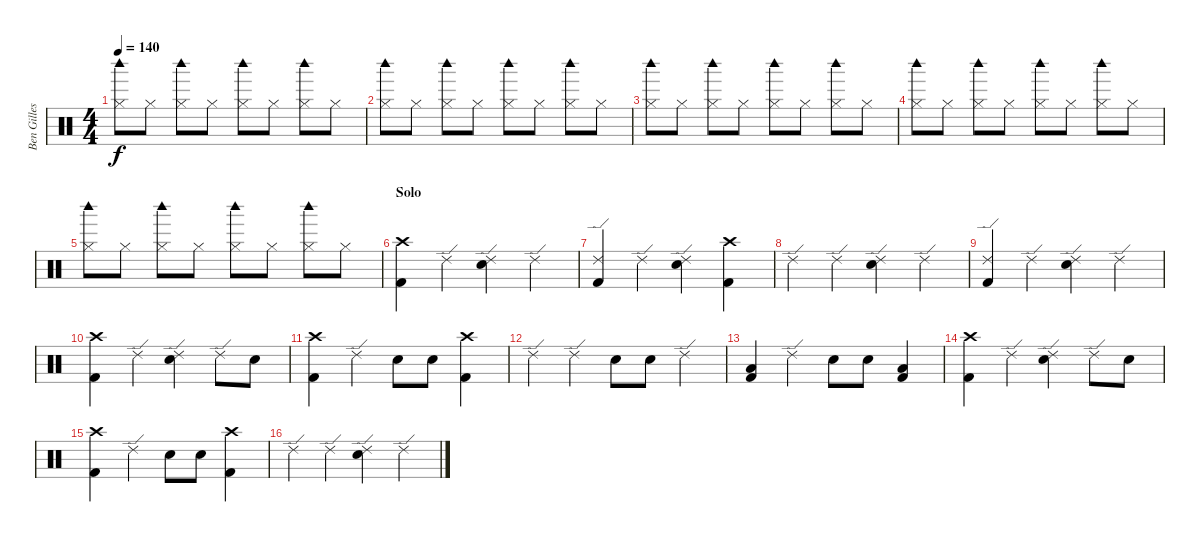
\track ("Ben Gilles" "Ben Gilles") {instrument percussion}
\staff {score}
\articulation defaults
\ts (4 4)
\tempo 140
\clef neutral
\ks c
("Hi-Hat (closed)" "Woodblock high (hit)").8{dy f} "Hi-Hat (closed)".8 ("Hi-Hat (closed)" "Woodblock high (hit)").8 "Hi-Hat (closed)".8 ("Hi-Hat (closed)" "Woodblock high (hit)").8 "Hi-Hat (closed)".8 ("Hi-Hat (closed)" "Woodblock high (hit)").8 "Hi-Hat (closed)".8 |
("Hi-Hat (closed)" "Woodblock high (hit)").8 "Hi-Hat (closed)".8 ("Hi-Hat (closed)" "Woodblock high (hit)").8 "Hi-Hat (closed)".8 ("Hi-Hat (closed)" "Woodblock high (hit)").8 "Hi-Hat (closed)".8 ("Hi-Hat (closed)" "Woodblock high (hit)").8 "Hi-Hat (closed)".8 |
("Hi-Hat (closed)" "Woodblock high (hit)").8 "Hi-Hat (closed)".8 ("Hi-Hat (closed)" "Woodblock high (hit)").8 "Hi-Hat (closed)".8 ("Hi-Hat (closed)" "Woodblock high (hit)").8 "Hi-Hat (closed)".8 ("Hi-Hat (closed)" "Woodblock high (hit)").8 "Hi-Hat (closed)".8 |
("Hi-Hat (closed)" "Woodblock high (hit)").8 "Hi-Hat (closed)".8 ("Hi-Hat (closed)" "Woodblock high (hit)").8 "Hi-Hat (closed)".8 ("Hi-Hat (closed)" "Woodblock high (hit)").8 "Hi-Hat (closed)".8 ("Hi-Hat (closed)" "Woodblock high (hit)").8 "Hi-Hat (closed)".8 |
("Hi-Hat (closed)" "Woodblock high (hit)").8 "Hi-Hat (closed)".8 ("Hi-Hat (closed)" "Woodblock high (hit)").8 "Hi-Hat (closed)".8 ("Hi-Hat (closed)" "Woodblock high (hit)").8 "Hi-Hat (closed)".8 ("Hi-Hat (closed)" "Woodblock high (hit)").8 "Hi-Hat (closed)".8 |
\section ("" "Solo")
("Crash high (hit)" "Kick (hit) 2").4 "Ride (edge) 2".4 ("Ride (edge) 2" "Electric Snare (hit)").4 "Ride (edge) 2".4 |
("Ride (edge) 2" "Kick (hit) 2").4 "Ride (edge) 2".4 ("Ride (edge) 2" "Electric Snare (hit)").4 ("Crash high (hit)" "Kick (hit) 2").4 |
"Ride (edge) 2".4 "Ride (edge) 2".4 ("Ride (edge) 2" "Electric Snare (hit)").4 "Ride (edge) 2".4 |
("Ride (edge) 2" "Kick (hit) 2").4 "Ride (edge) 2".4 ("Ride (edge) 2" "Electric Snare (hit)").4 "Ride (edge) 2".4 |
("Crash high (hit)" "Kick (hit) 2").4 "Ride (edge) 2".4 ("Ride (edge) 2" "Electric Snare (hit)").4 "Ride (edge) 2".8 "Electric Snare (hit)".8 |
("Crash high (hit)" "Kick (hit) 2").4 "Ride (edge) 2".4 "Electric Snare (hit)".8 "Electric Snare (hit)".8 ("Crash high (hit)" "Kick (hit) 2").4 |
"Ride (edge) 2".4 "Ride (edge) 2".4 "Electric Snare (hit)".8 "Electric Snare (hit)".8 "Ride (edge) 2".4 |
("Low Tom (hit)" "Kick (hit) 2").4 "Ride (edge) 2".4 "Electric Snare (hit)".8 "Electric Snare (hit)".8 ("Low Tom (hit)" "Kick (hit) 2").4 |
("Crash high (hit)" "Kick (hit) 2").4 "Ride (edge) 2".4 ("Ride (edge) 2" "Electric Snare (hit)").4 "Ride (edge) 2".8 "Electric Snare (hit)".8 |
("Crash high (hit)" "Kick (hit) 2").4 "Ride (edge) 2".4 "Electric Snare (hit)".8 "Electric Snare (hit)".8 ("Crash high (hit)" "Kick (hit) 2").4 |
"Ride (edge) 2".4 "Ride (edge) 2".4 ("Ride (edge) 2" "Electric Snare (hit)").4 "Ride (edge) 2".4
